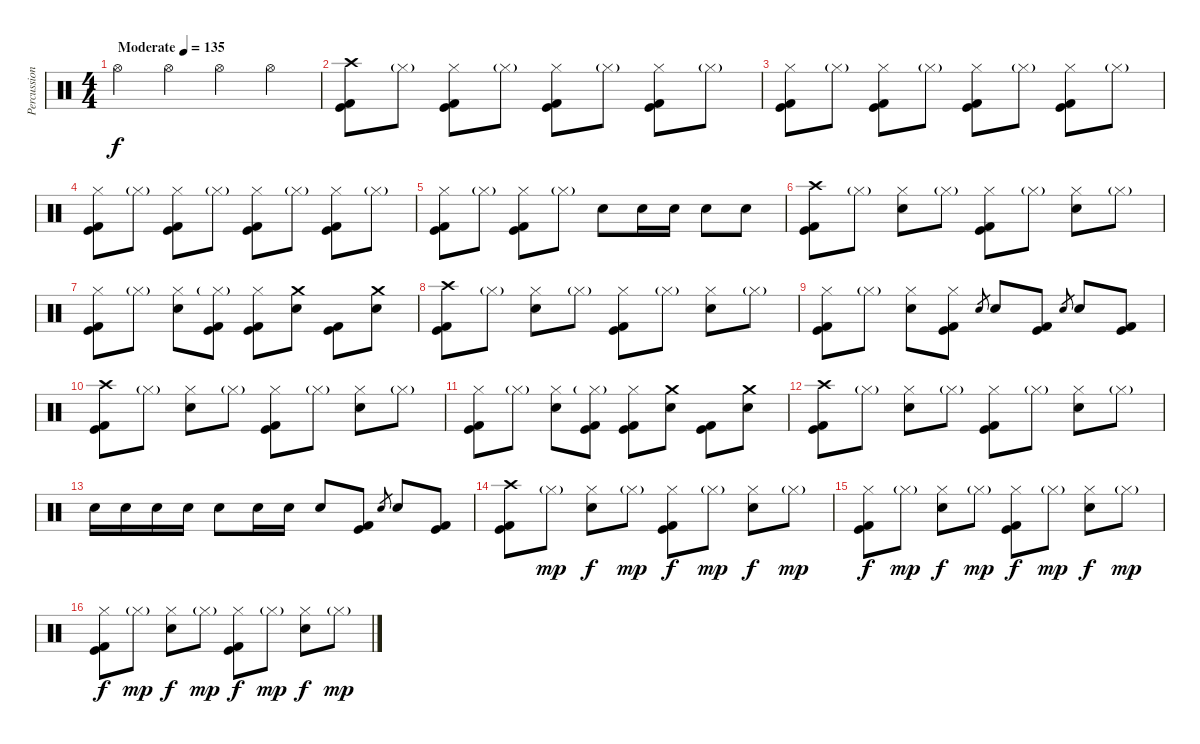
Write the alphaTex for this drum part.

\track ("Percussions" "Percussion") {instrument percussion}
\staff {score}
\articulation defaults
\ts (4 4)
\tempo (135 "Moderate")
\clef neutral
\ks c "Hi-Hat (open)".4{dy f} "Hi-Hat (open)".4 "Hi-Hat (open)".4 "Hi-Hat (open)".4
|
("Crash high (hit)" "Kick (hit)" "Kick (hit) 2").8 "Hi-Hat (closed)"{g}.8 ("Hi-Hat (closed)" "Kick (hit)" "Kick (hit) 2").8 "Hi-Hat (closed)"{g}.8 ("Hi-Hat (closed)" "Kick (hit)" "Kick (hit) 2").8 "Hi-Hat (closed)"{g}.8 ("Hi-Hat (closed)" "Kick (hit)" "Kick (hit) 2").8 "Hi-Hat (closed)"{g}.8 |
("Hi-Hat (closed)" "Kick (hit)" "Kick (hit) 2").8 "Hi-Hat (closed)"{g}.8 ("Hi-Hat (closed)" "Kick (hit)" "Kick (hit) 2").8 "Hi-Hat (closed)"{g}.8 ("Hi-Hat (closed)" "Kick (hit)" "Kick (hit) 2").8 "Hi-Hat (closed)"{g}.8 ("Hi-Hat (closed)" "Kick (hit)" "Kick (hit) 2").8 "Hi-Hat (closed)"{g}.8 |
("Hi-Hat (closed)" "Kick (hit)" "Kick (hit) 2").8 "Hi-Hat (closed)"{g}.8 ("Hi-Hat (closed)" "Kick (hit)" "Kick (hit) 2").8 "Hi-Hat (closed)"{g}.8 ("Hi-Hat (closed)" "Kick (hit)" "Kick (hit) 2").8 "Hi-Hat (closed)"{g}.8 ("Hi-Hat (closed)" "Kick (hit)" "Kick (hit) 2").8 "Hi-Hat (closed)"{g}.8 |
("Hi-Hat (closed)" "Kick (hit)" "Kick (hit) 2").8 "Hi-Hat (closed)"{g}.8 ("Hi-Hat (closed)" "Kick (hit)" "Kick (hit) 2").8 "Hi-Hat (closed)"{g}.8 "Electric Snare (hit)".8 "Electric Snare (hit)".16 "Electric Snare (hit)".16 "Electric Snare (hit)".8 "Electric Snare (hit)".8 |
("Crash high (hit)" "Kick (hit)" "Kick (hit) 2").8 "Hi-Hat (closed)"{g}.8 ("Hi-Hat (closed)" "Electric Snare (hit)").8 "Hi-Hat (closed)"{g}.8 ("Hi-Hat (closed)" "Kick (hit)" "Kick (hit) 2").8 "Hi-Hat (closed)"{g}.8 ("Hi-Hat (closed)" "Electric Snare (hit)").8 "Hi-Hat (closed)"{g}.8 |
("Hi-Hat (closed)" "Kick (hit)" "Kick (hit) 2").8 "Hi-Hat (closed)"{g}.8 ("Hi-Hat (closed)" "Electric Snare (hit)").8 ("Hi-Hat (closed)"{g} "Kick (hit)" "Kick (hit) 2").8 ("Hi-Hat (closed)" "Kick (hit)" "Kick (hit) 2").8 ("Crash medium (hit)" "Electric Snare (hit)").8 ("Kick (hit)" "Kick (hit) 2").8 ("Crash medium (hit)" "Electric Snare (hit)").8 |
("Crash high (hit)" "Kick (hit)" "Kick (hit) 2").8 "Hi-Hat (closed)"{g}.8 ("Hi-Hat (closed)" "Electric Snare (hit)").8 "Hi-Hat (closed)"{g}.8 ("Hi-Hat (closed)" "Kick (hit)" "Kick (hit) 2").8 "Hi-Hat (closed)"{g}.8 ("Hi-Hat (closed)" "Electric Snare (hit)").8 "Hi-Hat (closed)"{g}.8 |
("Hi-Hat (closed)" "Kick (hit)" "Kick (hit) 2").8 "Hi-Hat (closed)"{g}.8 ("Hi-Hat (closed)" "Electric Snare (hit)").8 ("Hi-Hat (closed)" "Kick (hit)" "Kick (hit) 2").8 "Electric Snare (hit)".8{gr} "Electric Snare (hit)".8 ("Kick (hit)" "Kick (hit) 2").8 "Electric Snare (hit)".8{gr} "Electric Snare (hit)".8 ("Kick (hit)" "Kick (hit) 2").8 |
("Crash high (hit)" "Kick (hit)" "Kick (hit) 2").8 "Hi-Hat (closed)"{g}.8 ("Hi-Hat (closed)" "Electric Snare (hit)").8 "Hi-Hat (closed)"{g}.8 ("Hi-Hat (closed)" "Kick (hit)" "Kick (hit) 2").8 "Hi-Hat (closed)"{g}.8 ("Hi-Hat (closed)" "Electric Snare (hit)").8 "Hi-Hat (closed)"{g}.8 |
("Hi-Hat (closed)" "Kick (hit)" "Kick (hit) 2").8 "Hi-Hat (closed)"{g}.8 ("Hi-Hat (closed)" "Electric Snare (hit)").8 ("Hi-Hat (closed)"{g} "Kick (hit)" "Kick (hit) 2").8 ("Hi-Hat (closed)" "Kick (hit)" "Kick (hit) 2").8 ("Crash medium (hit)" "Electric Snare (hit)").8 ("Kick (hit)" "Kick (hit) 2").8 ("Crash medium (hit)" "Electric Snare (hit)").8 |
("Crash high (hit)" "Kick (hit)" "Kick (hit) 2").8 "Hi-Hat (closed)"{g}.8 ("Hi-Hat (closed)" "Electric Snare (hit)").8 "Hi-Hat (closed)"{g}.8 ("Hi-Hat (closed)" "Kick (hit)" "Kick (hit) 2").8 "Hi-Hat (closed)"{g}.8 ("Hi-Hat (closed)" "Electric Snare (hit)").8 "Hi-Hat (closed)"{g}.8 |
"Electric Snare (hit)".16 "Electric Snare (hit)".16 "Electric Snare (hit)".16 "Electric Snare (hit)".16 "Electric Snare (hit)".8 "Electric Snare (hit)".16 "Electric Snare (hit)".16 "Electric Snare (hit)".8 ("Kick (hit)" "Kick (hit) 2").8 "Electric Snare (hit)".8{gr} "Electric Snare (hit)".8 ("Kick (hit)" "Kick (hit) 2").8 |
("Crash high (hit)" "Kick (hit)" "Kick (hit) 2").8 "Hi-Hat (closed)"{g}.8{dy mp} ("Hi-Hat (closed)" "Electric Snare (hit)").8{dy f} "Hi-Hat (closed)"{g}.8{dy mp} ("Hi-Hat (closed)" "Kick (hit)" "Kick (hit) 2").8{dy f} "Hi-Hat (closed)"{g}.8{dy mp} ("Hi-Hat (closed)" "Electric Snare (hit)").8{dy f} "Hi-Hat (closed)"{g}.8{dy mp} |
("Hi-Hat (closed)" "Kick (hit)" "Kick (hit) 2").8{dy f} "Hi-Hat (closed)"{g}.8{dy mp} ("Hi-Hat (closed)" "Electric Snare (hit)").8{dy f} "Hi-Hat (closed)"{g}.8{dy mp} ("Hi-Hat (closed)" "Kick (hit)" "Kick (hit) 2").8{dy f} "Hi-Hat (closed)"{g}.8{dy mp} ("Hi-Hat (closed)" "Electric Snare (hit)").8{dy f} "Hi-Hat (closed)"{g}.8{dy mp} |
("Hi-Hat (closed)" "Kick (hit)" "Kick (hit) 2").8{dy f} "Hi-Hat (closed)"{g}.8{dy mp} ("Hi-Hat (closed)" "Electric Snare (hit)").8{dy f} "Hi-Hat (closed)"{g}.8{dy mp} ("Hi-Hat (closed)" "Kick (hit)" "Kick (hit) 2").8{dy f} "Hi-Hat (closed)"{g}.8{dy mp} ("Hi-Hat (closed)" "Electric Snare (hit)").8{dy f} "Hi-Hat (closed)"{g}.8{dy mp}
